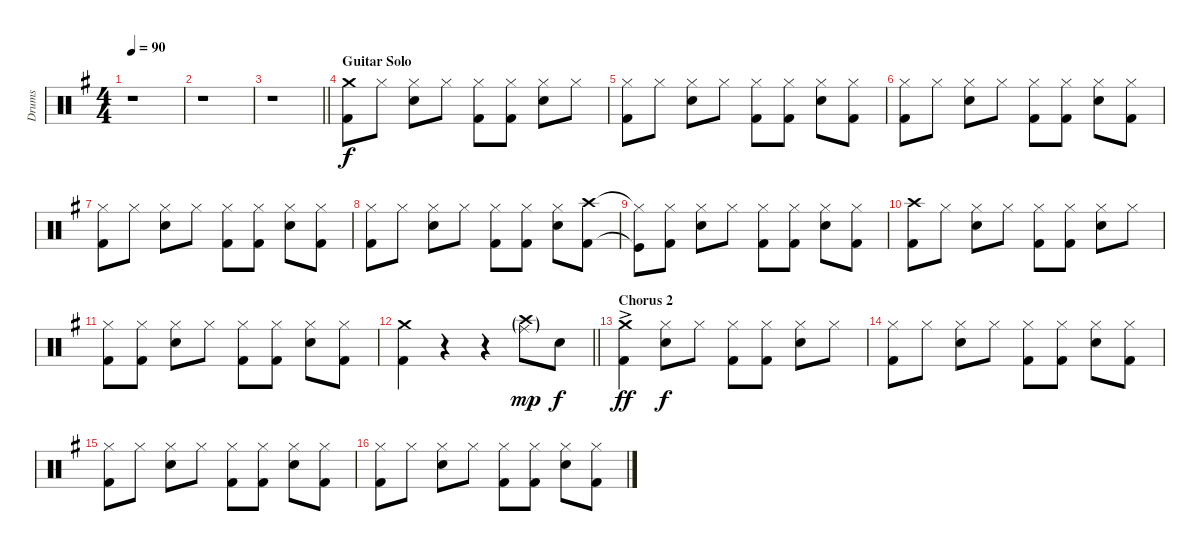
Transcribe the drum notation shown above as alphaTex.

\track ("Drums" "Drums") {instrument percussion}
\staff {score}
\articulation defaults
\ts (4 4)
\tempo 90
\clef neutral
\ks g
r.1{dy fff} |
r.1 |
\barLineRight lightlight
r.1 |
\section ("" "Guitar Solo")
("Crash medium (hit)" "Kick (hit) 2").8{dy f} "Hi-Hat (closed)".8 ("Hi-Hat (closed)" "Electric Snare (hit)").8 "Hi-Hat (closed)".8 ("Hi-Hat (closed)" "Kick (hit) 2").8 ("Hi-Hat (closed)" "Kick (hit) 2").8 ("Hi-Hat (closed)" "Electric Snare (hit)").8 "Hi-Hat (closed)".8 |
("Hi-Hat (closed)" "Kick (hit) 2").8 "Hi-Hat (closed)".8 ("Hi-Hat (closed)" "Electric Snare (hit)").8 "Hi-Hat (closed)".8 ("Hi-Hat (closed)" "Kick (hit) 2").8 ("Hi-Hat (closed)" "Kick (hit) 2").8 ("Hi-Hat (closed)" "Electric Snare (hit)").8 ("Hi-Hat (closed)" "Kick (hit) 2").8 |
("Hi-Hat (closed)" "Kick (hit) 2").8 "Hi-Hat (closed)".8 ("Hi-Hat (closed)" "Electric Snare (hit)").8 "Hi-Hat (closed)".8 ("Hi-Hat (closed)" "Kick (hit) 2").8 ("Hi-Hat (closed)" "Kick (hit) 2").8 ("Hi-Hat (closed)" "Electric Snare (hit)").8 ("Hi-Hat (closed)" "Kick (hit) 2").8 |
("Hi-Hat (closed)" "Kick (hit) 2").8 "Hi-Hat (closed)".8 ("Hi-Hat (closed)" "Electric Snare (hit)").8 "Hi-Hat (closed)".8 ("Hi-Hat (closed)" "Kick (hit) 2").8 ("Hi-Hat (closed)" "Kick (hit) 2").8 ("Hi-Hat (closed)" "Electric Snare (hit)").8 ("Hi-Hat (closed)" "Kick (hit) 2").8 |
("Hi-Hat (closed)" "Kick (hit) 2").8 "Hi-Hat (closed)".8 ("Hi-Hat (closed)" "Electric Snare (hit)").8 "Hi-Hat (closed)".8 ("Hi-Hat (closed)" "Kick (hit) 2").8 ("Hi-Hat (closed)" "Kick (hit) 2").8 ("Hi-Hat (closed)" "Electric Snare (hit)").8 ("Crash high (hit)" "Kick (hit) 2").8 |
("Hi-Hat (closed)"{t} "Kick (hit)"{t}).8 ("Hi-Hat (closed)" "Kick (hit) 2").8 ("Hi-Hat (closed)" "Electric Snare (hit)").8 "Hi-Hat (closed)".8 ("Hi-Hat (closed)" "Kick (hit) 2").8 ("Hi-Hat (closed)" "Kick (hit) 2").8 ("Hi-Hat (closed)" "Electric Snare (hit)").8 ("Hi-Hat (closed)" "Kick (hit) 2").8 |
("Crash high (hit)" "Kick (hit) 2").8 "Hi-Hat (closed)".8 ("Hi-Hat (closed)" "Electric Snare (hit)").8 "Hi-Hat (closed)".8 ("Hi-Hat (closed)" "Kick (hit) 2").8 ("Hi-Hat (closed)" "Kick (hit) 2").8 ("Hi-Hat (closed)" "Electric Snare (hit)").8 "Hi-Hat (closed)".8 |
("Hi-Hat (closed)" "Kick (hit) 2").8 ("Hi-Hat (closed)" "Kick (hit) 2").8 ("Hi-Hat (closed)" "Electric Snare (hit)").8 "Hi-Hat (closed)".8 ("Hi-Hat (closed)" "Kick (hit) 2").8 ("Hi-Hat (closed)" "Kick (hit) 2").8 ("Hi-Hat (closed)" "Electric Snare (hit)").8 ("Hi-Hat (closed)" "Kick (hit) 2").8 |
\barLineRight lightlight
("Crash medium (hit)" "Kick (hit) 2").4 r.4 r.4 ("Crash high (hit)"{g} "Ride (middle)"{g}).8{dy mp} "Electric Snare (hit)".8{dy f} |
\section ("" "Chorus 2")
("Crash medium (hit)"{ac} "Kick (hit) 2").4{dy ff} ("Hi-Hat (closed)" "Electric Snare (hit)").8{dy f} "Hi-Hat (closed)".8 ("Hi-Hat (closed)" "Kick (hit) 2").8 ("Hi-Hat (closed)" "Kick (hit) 2").8 ("Hi-Hat (closed)" "Electric Snare (hit)").8 "Hi-Hat (closed)".8 |
("Hi-Hat (closed)" "Kick (hit) 2").8 "Hi-Hat (closed)".8 ("Hi-Hat (closed)" "Electric Snare (hit)").8 "Hi-Hat (closed)".8 ("Hi-Hat (closed)" "Kick (hit) 2").8 ("Hi-Hat (closed)" "Kick (hit) 2").8 ("Hi-Hat (closed)" "Electric Snare (hit)").8 ("Hi-Hat (closed)" "Kick (hit) 2").8 |
("Hi-Hat (closed)" "Kick (hit) 2").8 "Hi-Hat (closed)".8 ("Hi-Hat (closed)" "Electric Snare (hit)").8 "Hi-Hat (closed)".8 ("Hi-Hat (closed)" "Kick (hit) 2").8 ("Hi-Hat (closed)" "Kick (hit) 2").8 ("Hi-Hat (closed)" "Electric Snare (hit)").8 ("Hi-Hat (closed)" "Kick (hit) 2").8 |
("Hi-Hat (closed)" "Kick (hit) 2").8 "Hi-Hat (closed)".8 ("Hi-Hat (closed)" "Electric Snare (hit)").8 "Hi-Hat (closed)".8 ("Hi-Hat (closed)" "Kick (hit) 2").8 ("Hi-Hat (closed)" "Kick (hit) 2").8 ("Hi-Hat (closed)" "Electric Snare (hit)").8 ("Hi-Hat (closed)" "Kick (hit) 2").8
